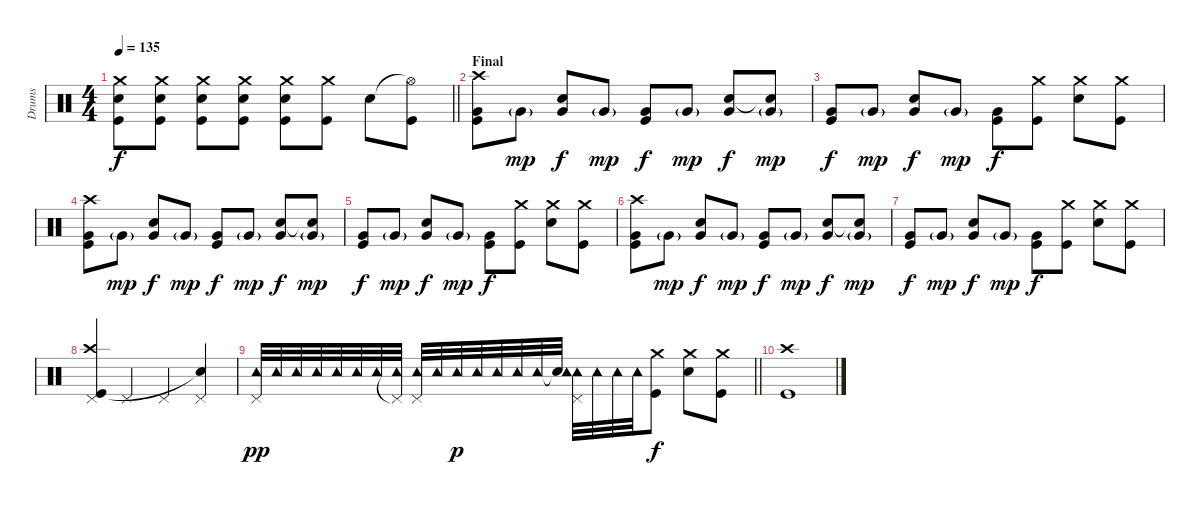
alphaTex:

\track ("Drums" "Drums") {instrument percussion}
\staff {score}
\articulation defaults
\ts (4 4)
\tempo 135
\clef neutral
\barLineRight lightlight
\ks c
("Crash medium (hit)" "Electric Snare (hit)" "Kick (hit)").8{dy f} ("Crash medium (hit)" "Electric Snare (hit)" "Kick (hit)").8 ("Crash medium (hit)" "Electric Snare (hit)" "Kick (hit)").8 ("Crash medium (hit)" "Electric Snare (hit)" "Kick (hit)").8 ("Crash medium (hit)" "Electric Snare (hit)" "Kick (hit)").8 ("Crash medium (hit)" "Kick (hit)").8 "Electric Snare (hit)".8 ("Hi-Hat (open)"{t} "Kick (hit)").8 |
\section ("" "Final")
("Very Low Tom (hit)" "Kick (hit)" "Crash high (hit)").8 "Very Low Tom (hit)"{g}.8{dy mp} ("Very Low Tom (hit)" "Electric Snare (hit)").8{dy f} "Very Low Tom (hit)"{g}.8{dy mp} ("Very Low Tom (hit)" "Kick (hit)").8{dy f} "Very Low Tom (hit)"{g}.8{dy mp} ("Very Low Tom (hit)" "Electric Snare (hit)").8{dy f} ("Very Low Tom (hit)"{g} "Snare (hit)"{t}).8{dy mp} |
("Very Low Tom (hit)" "Kick (hit)").8{dy f} "Very Low Tom (hit)"{g}.8{dy mp} ("Very Low Tom (hit)" "Electric Snare (hit)").8{dy f} "Very Low Tom (hit)"{g}.8{dy mp} ("Very Low Tom (hit)" "Kick (hit)").8{dy f} ("Kick (hit)" "Crash medium (hit)").8 ("Electric Snare (hit)" "Crash medium (hit)").8 ("Kick (hit)" "Crash medium (hit)").8 |
("Very Low Tom (hit)" "Kick (hit)" "Crash high (hit)").8 "Very Low Tom (hit)"{g}.8{dy mp} ("Very Low Tom (hit)" "Electric Snare (hit)").8{dy f} "Very Low Tom (hit)"{g}.8{dy mp} ("Very Low Tom (hit)" "Kick (hit)").8{dy f} "Very Low Tom (hit)"{g}.8{dy mp} ("Very Low Tom (hit)" "Electric Snare (hit)").8{dy f} ("Very Low Tom (hit)"{g} "Snare (hit)"{t}).8{dy mp} |
("Very Low Tom (hit)" "Kick (hit)").8{dy f} "Very Low Tom (hit)"{g}.8{dy mp} ("Very Low Tom (hit)" "Electric Snare (hit)").8{dy f} "Very Low Tom (hit)"{g}.8{dy mp} ("Very Low Tom (hit)" "Kick (hit)").8{dy f} ("Kick (hit)" "Crash medium (hit)").8 ("Electric Snare (hit)" "Crash medium (hit)").8 ("Kick (hit)" "Crash medium (hit)").8 |
("Very Low Tom (hit)" "Kick (hit)" "Crash high (hit)").8 "Very Low Tom (hit)"{g}.8{dy mp} ("Very Low Tom (hit)" "Electric Snare (hit)").8{dy f} "Very Low Tom (hit)"{g}.8{dy mp} ("Very Low Tom (hit)" "Kick (hit)").8{dy f} "Very Low Tom (hit)"{g}.8{dy mp} ("Very Low Tom (hit)" "Electric Snare (hit)").8{dy f} ("Very Low Tom (hit)"{g} "Snare (hit)"{t}).8{dy mp} |
("Very Low Tom (hit)" "Kick (hit)").8{dy f} "Very Low Tom (hit)"{g}.8{dy mp} ("Very Low Tom (hit)" "Electric Snare (hit)").8{dy f} "Very Low Tom (hit)"{g}.8{dy mp} ("Very Low Tom (hit)" "Kick (hit)").8{dy f} ("Kick (hit)" "Crash medium (hit)").8 ("Electric Snare (hit)" "Crash medium (hit)").8 ("Kick (hit)" "Crash medium (hit)").8 |
("Pedal Hi-Hat (hit)" "Kick (hit)" "Crash high (hit)").4 "Pedal Hi-Hat (hit)".4 "Pedal Hi-Hat (hit)".4 ("Pedal Hi-Hat (hit)" "Snare (hit)"{t}).4 |
\barLineRight lightlight
("Pedal Hi-Hat (hit)" "Tambourine (hit)").32{dy pp} "Tambourine (hit)".32 "Tambourine (hit)".32 "Tambourine (hit)".32 "Tambourine (hit)".32 "Tambourine (hit)".32 "Tambourine (hit)".32 ("Pedal Hi-Hat (hit)"{t} "Tambourine (hit)").32 ("Pedal Hi-Hat (hit)" "Tambourine (hit)").32 "Tambourine (hit)".32 "Tambourine (hit)".32{dy p} "Tambourine (hit)".32 "Tambourine (hit)".32 "Tambourine (hit)".32 "Tambourine (hit)".32 ("Snare (hit)"{t} "Tambourine (hit)").32 ("Pedal Hi-Hat (hit)" "Tambourine (hit)").32 "Tambourine (hit)".32 "Tambourine (hit)".32 "Tambourine (hit)".32 ("Kick (hit)" "Crash medium (hit)").8{dy f} ("Electric Snare (hit)" "Crash medium (hit)").8 ("Kick (hit)" "Crash medium (hit)").8 |
("Kick (hit)" "Crash high (hit)").1
